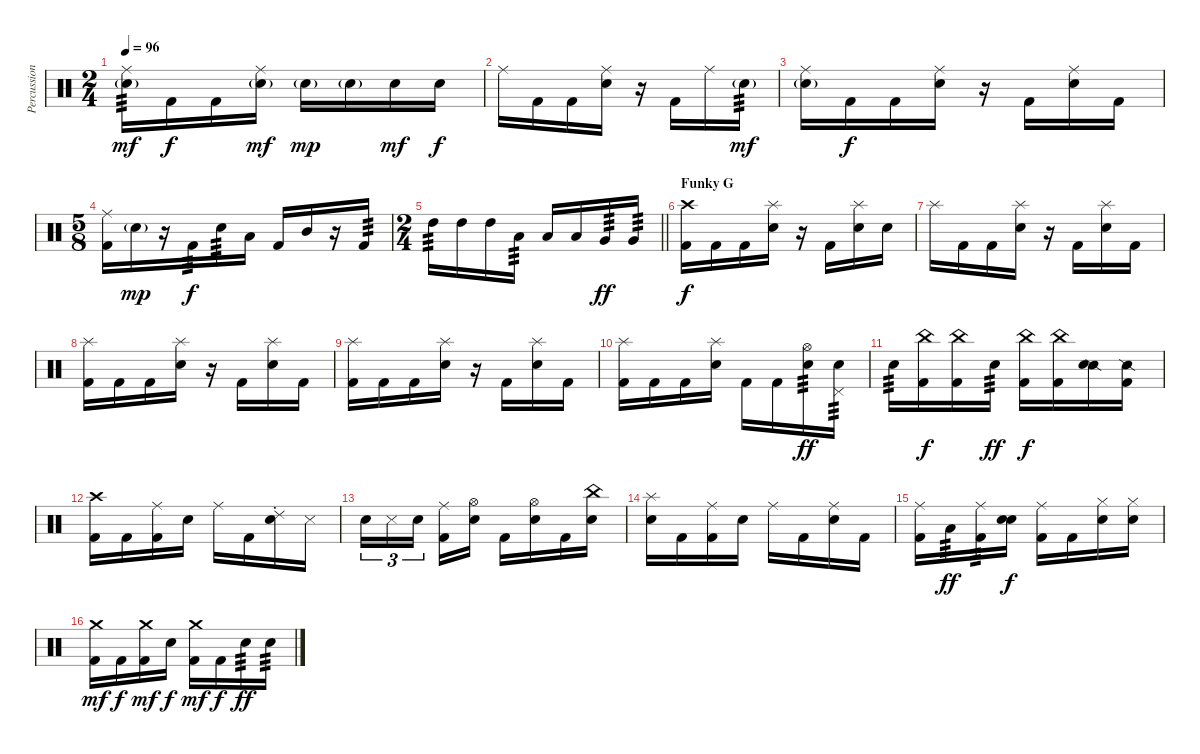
\track ("Percussion" "Percussion") {instrument percussion}
\staff {score}
\articulation defaults
\ts (2 4)
\tempo 96
\clef neutral
\ks c
("Ride (middle)" "Snare (hit) 2"{g}).16{tp 3 dy mf} "Kick (hit) 2".16{dy f} "Kick (hit) 2".16 ("Ride (middle)" "Snare (hit) 2"{g}).16{dy mf} "Snare (hit) 2"{g}.16{dy mp} "Snare (hit) 2"{g}.16 "Snare (hit) 2".16{dy mf} "Snare (hit) 2".16{dy f} |
"Ride (middle)".16 "Kick (hit) 2".16 "Kick (hit) 2".16 ("Ride (middle)" "Snare (hit) 2").16 r.16 "Kick (hit) 2".16 "Ride (middle)".16 "Snare (hit) 2"{g}.16{tp 3 dy mf} |
("Ride (middle)" "Snare (hit) 2"{g}).16 "Kick (hit) 2".16{dy f} "Kick (hit) 2".16 ("Ride (middle)" "Snare (hit) 2").16 r.16 "Kick (hit) 2".16 ("Ride (middle)" "Snare (hit) 2").16 "Kick (hit) 2".16 |
\ts (5 8)
("Ride (middle)" "Kick (hit) 2").16 "Snare (hit) 2"{g}.16{dy mp} r.16 "Kick (hit) 2".16{tp 3 dy f} "Snare (hit) 2".16{tp 3} "Low Tom (hit)".16 "Kick (hit) 2".16 "Mid Tom (hit)".16 r.16 "Kick (hit) 2".16{tp 3} |
\ts (2 4)
\barLineRight lightlight "High Tom (hit)".16{tp 3} "High Tom (hit)".16 "High Tom (hit)".16 "Low Tom (hit)".16{tp 3} "Low Tom (hit)".16 "Low Tom (hit)".16 "Very Low Tom (hit)".16{tp 3 dy ff} "Very Low Tom (hit)".16{tp 3}
|
\section ("" "Funky G")
("Crash high (hit)" "Kick (hit) 2").16{dy f} "Kick (hit) 2".16 "Kick (hit) 2".16 ("Splash (hit)" "Snare (hit) 2").16 r.16 "Kick (hit) 2".16 ("Splash (hit)" "Snare (hit) 2").16 "Snare (hit) 2".16 |
"Splash (hit)".16 "Kick (hit) 2".16 "Kick (hit) 2".16 ("Splash (hit)" "Snare (hit) 2").16 r.16 "Kick (hit) 2".16 ("Splash (hit)" "Snare (hit) 2").16 "Kick (hit) 2".16 |
("Splash (hit)" "Kick (hit) 2").16 "Kick (hit) 2".16 "Kick (hit) 2".16 ("Splash (hit)" "Snare (hit) 2").16 r.16 "Kick (hit) 2".16 ("Splash (hit)" "Snare (hit) 2").16 "Kick (hit) 2".16 |
("Splash (hit)" "Kick (hit) 2").16 "Kick (hit) 2".16 "Kick (hit) 2".16 ("Splash (hit)" "Snare (hit) 2").16 r.16 "Kick (hit) 2".16 ("Splash (hit)" "Snare (hit) 2").16 "Kick (hit) 2".16 |
("Splash (hit)" "Kick (hit) 2").16 "Kick (hit) 2".16 "Kick (hit) 2".16 ("Splash (hit)" "Snare (hit) 2").16 "Kick (hit) 2".16 "Kick (hit) 2".16 ("Hi-Hat (open)" "Snare (hit) 2").16{tp 3 dy ff} ("Pedal Hi-Hat (hit)" "Snare (hit) 2").16{tp 3} |
"Snare (hit) 2".16{tp 3} ("China (hit)" "Kick (hit) 2").16{dy f} ("China (hit)" "Kick (hit) 2").16 "Snare (hit) 2".16{tp 3 dy ff} ("China (hit)" "Kick (hit) 2").16{dy f} ("China (hit)" "Kick (hit) 2").16 ("Snare (side stick) 2" "Snare (hit) 2").16 ("Snare (side stick) 2" "Kick (hit) 2").16 |
("Crash high (hit)" "Kick (hit) 2").16 "Kick (hit) 2".16 ("Ride (middle)" "Kick (hit) 2").16 "Snare (hit) 2".16 "Ride (middle)".16 "Kick (hit) 2".16 ("Ride (choke) 2" "Snare (hit) 2").16 "Metronome (hit)".16 |
"Snare (hit) 2".16{tu (3 2)} "Metronome (hit)".16{tu (3 2)} "Snare (hit) 2".16{tu (3 2) beam splitsecondary} ("Ride (middle)" "Kick (hit) 2").16 ("Hi-Hat (open)" "Snare (hit) 2").16 "Kick (hit) 2".16 ("Hi-Hat (open)" "Snare (hit) 2").16 "Kick (hit) 2".16 ("China (hit)" "Snare (hit) 2").16 |
("Splash (hit)" "Snare (hit) 2").16 "Kick (hit) 2".16 ("Ride (middle)" "Kick (hit) 2").16 "Snare (hit) 2".16 "Ride (middle)".16 "Kick (hit) 2".16 ("Ride (middle)" "Snare (hit) 2").16 "Kick (hit) 2".16 |
("Ride (middle)" "Kick (hit) 2").16 "Low Tom (hit)".16{tp 3 dy ff} ("Ride (middle)" "Kick (hit) 2").16{tp 3} ("Snare (hit)" "Snare (hit) 2").16{dy f} ("Ride (middle)" "Kick (hit) 2").16 "Kick (hit) 2".16 ("Hi-Hat (closed)" "Snare (hit) 2").16 ("Hi-Hat (closed)" "Snare (hit) 2").16 |
("Crash medium (hit)" "Kick (hit) 2").16{dy mf} "Kick (hit) 2".16{dy f} ("Crash medium (hit)" "Kick (hit) 2").16{dy mf} "Snare (hit) 2".16{dy f} ("Crash medium (hit)" "Kick (hit) 2").16{dy mf} "Kick (hit) 2".16{dy f} "Snare (hit) 2".16{tp 3 dy ff} "Snare (hit) 2".16{tp 3}
